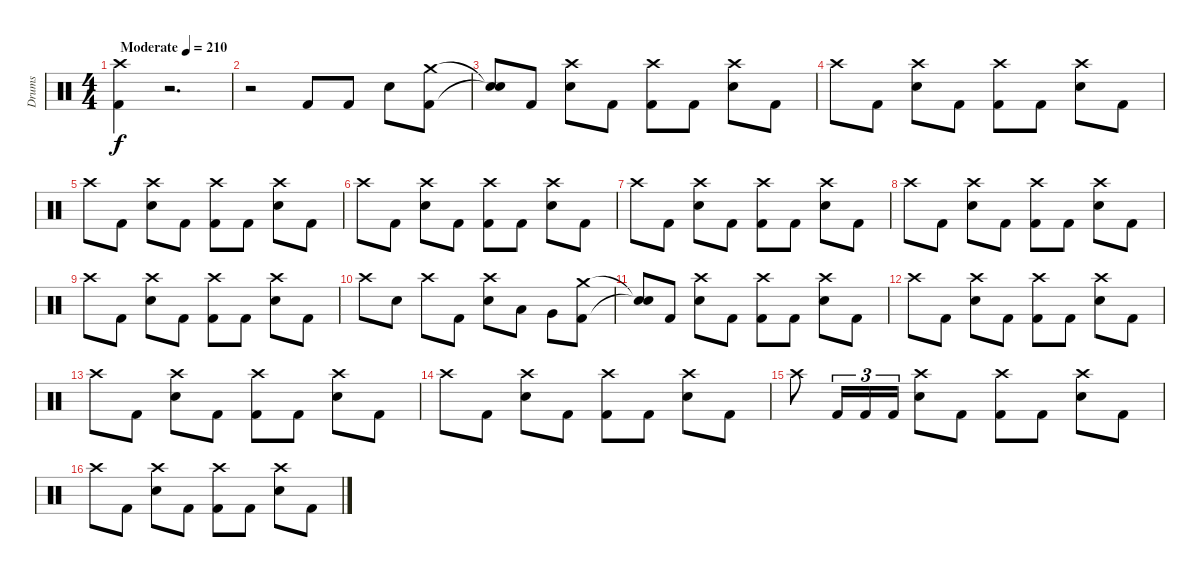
\track ("Drums" "Drums") {instrument percussion}
\staff {score}
\articulation defaults
\ts (4 4)
\tempo (210 "Moderate")
\clef neutral
\ks c
("Crash high (hit)" "Kick (hit) 2").4{dy f} r.2{d volume 0} |
r.2 "Kick (hit) 2".8{volume 16} "Kick (hit) 2".8 "Electric Snare (hit)".8 ("Crash medium (hit)" "Kick (hit) 2").8 |
("Snare (hit)"{t} "Snare (hit)"{t}).8 "Kick (hit) 2".8 ("Crash high (hit)" "Electric Snare (hit)").8 "Kick (hit) 2".8 ("Crash high (hit)" "Kick (hit) 2").8 "Kick (hit) 2".8 ("Crash high (hit)" "Electric Snare (hit)").8 "Kick (hit) 2".8 |
"Crash high (hit)".8 "Kick (hit) 2".8 ("Crash high (hit)" "Electric Snare (hit)").8 "Kick (hit) 2".8 ("Crash high (hit)" "Kick (hit) 2").8 "Kick (hit) 2".8 ("Crash high (hit)" "Electric Snare (hit)").8 "Kick (hit) 2".8 |
"Crash high (hit)".8 "Kick (hit) 2".8 ("Crash high (hit)" "Electric Snare (hit)").8 "Kick (hit) 2".8 ("Crash high (hit)" "Kick (hit) 2").8 "Kick (hit) 2".8 ("Crash high (hit)" "Electric Snare (hit)").8 "Kick (hit) 2".8 |
"Crash high (hit)".8 "Kick (hit) 2".8 ("Crash high (hit)" "Electric Snare (hit)").8 "Kick (hit) 2".8 ("Crash high (hit)" "Kick (hit) 2").8 "Kick (hit) 2".8 ("Crash high (hit)" "Electric Snare (hit)").8 "Kick (hit) 2".8 |
"Crash high (hit)".8 "Kick (hit) 2".8 ("Crash high (hit)" "Electric Snare (hit)").8 "Kick (hit) 2".8 ("Crash high (hit)" "Kick (hit) 2").8 "Kick (hit) 2".8 ("Crash high (hit)" "Electric Snare (hit)").8 "Kick (hit) 2".8 |
"Crash high (hit)".8 "Kick (hit) 2".8 ("Crash high (hit)" "Electric Snare (hit)").8 "Kick (hit) 2".8 ("Crash high (hit)" "Kick (hit) 2").8 "Kick (hit) 2".8 ("Crash high (hit)" "Electric Snare (hit)").8 "Kick (hit) 2".8 |
"Crash high (hit)".8 "Kick (hit) 2".8 ("Crash high (hit)" "Electric Snare (hit)").8 "Kick (hit) 2".8 ("Crash high (hit)" "Kick (hit) 2").8 "Kick (hit) 2".8 ("Crash high (hit)" "Electric Snare (hit)").8 "Kick (hit) 2".8 |
"Crash high (hit)".8 "Electric Snare (hit)".8 "Crash high (hit)".8 "Kick (hit) 2".8 ("Crash high (hit)" "Electric Snare (hit)").8 "Low Tom (hit)".8 "Very Low Tom (hit)".8 ("Crash medium (hit)" "Kick (hit) 2").8 |
("Snare (hit)"{t} "Snare (hit)"{t}).8 "Kick (hit) 2".8 ("Crash high (hit)" "Electric Snare (hit)").8 "Kick (hit) 2".8 ("Crash high (hit)" "Kick (hit) 2").8 "Kick (hit) 2".8 ("Crash high (hit)" "Electric Snare (hit)").8 "Kick (hit) 2".8 |
"Crash high (hit)".8 "Kick (hit) 2".8 ("Crash high (hit)" "Electric Snare (hit)").8 "Kick (hit) 2".8 ("Crash high (hit)" "Kick (hit) 2").8 "Kick (hit) 2".8 ("Crash high (hit)" "Electric Snare (hit)").8 "Kick (hit) 2".8 |
"Crash high (hit)".8 "Kick (hit) 2".8 ("Crash high (hit)" "Electric Snare (hit)").8 "Kick (hit) 2".8 ("Crash high (hit)" "Kick (hit) 2").8 "Kick (hit) 2".8 ("Crash high (hit)" "Electric Snare (hit)").8 "Kick (hit) 2".8 |
"Crash high (hit)".8 "Kick (hit) 2".8 ("Crash high (hit)" "Electric Snare (hit)").8 "Kick (hit) 2".8 ("Crash high (hit)" "Kick (hit) 2").8 "Kick (hit) 2".8 ("Crash high (hit)" "Electric Snare (hit)").8 "Kick (hit) 2".8 |
"Crash high (hit)".8 "Kick (hit) 2".16{tu (3 2)} "Kick (hit) 2".16{tu (3 2)} "Kick (hit) 2".16{tu (3 2)} ("Crash high (hit)" "Electric Snare (hit)").8 "Kick (hit) 2".8 ("Crash high (hit)" "Kick (hit) 2").8 "Kick (hit) 2".8 ("Crash high (hit)" "Electric Snare (hit)").8 "Kick (hit) 2".8 |
"Crash high (hit)".8 "Kick (hit) 2".8 ("Crash high (hit)" "Electric Snare (hit)").8 "Kick (hit) 2".8 ("Crash high (hit)" "Kick (hit) 2").8 "Kick (hit) 2".8 ("Crash high (hit)" "Electric Snare (hit)").8 "Kick (hit) 2".8
